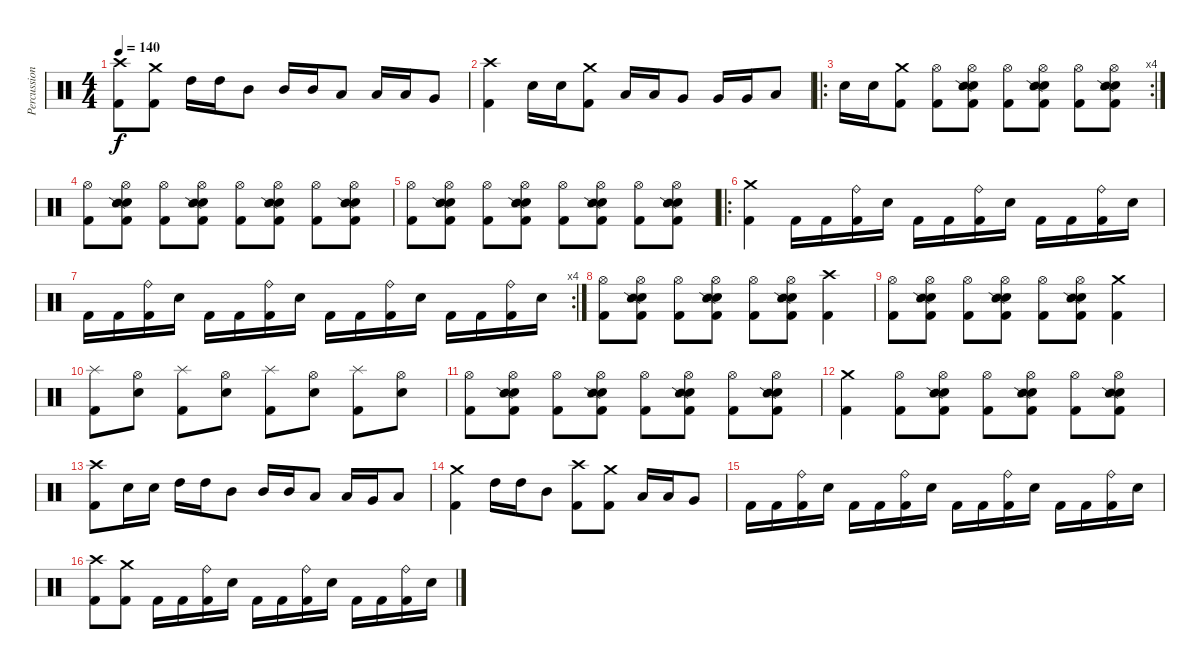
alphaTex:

\track ("Percussion" "Percussion") {instrument percussion}
\staff {score}
\articulation defaults
\ts (4 4)
\tempo 140
\clef neutral
\ks c
("Crash high (hit)" "Kick (hit) 2").8{dy f} ("Crash medium (hit)" "Kick (hit) 2").8 "High Tom (hit)".16 "High Tom (hit)".16 "Mid Tom (hit)".8 "Mid Tom (hit)".16 "Mid Tom (hit)".16 "Low Tom (hit)".8 "Low Tom (hit)".16 "Low Tom (hit)".16 "Very Low Tom (hit)".8 |
("Crash high (hit)" "Kick (hit) 2").4 "Electric Snare (hit)".16 "Electric Snare (hit)".16 ("Crash medium (hit)" "Kick (hit) 2").8 "Low Tom (hit)".16 "Low Tom (hit)".16 "Very Low Tom (hit)".8 "Very Low Tom (hit)".16 "Very Low Tom (hit)".16 "Low Floor Tom (hit)".8 |
\ro
\rc 4 "Electric Snare (hit)".16 "Electric Snare (hit)".16
("Crash medium (hit)" "Kick (hit) 2").8 ("Hi-Hat (open)" "Kick (hit) 2").8 ("Hi-Hat (open)" "Electric Snare (hit)" "Snare (side stick) 2" "Kick (hit) 2").8 ("Hi-Hat (open)" "Kick (hit) 2").8 ("Hi-Hat (open)" "Electric Snare (hit)" "Snare (side stick) 2" "Kick (hit) 2").8 ("Hi-Hat (open)" "Kick (hit) 2").8 ("Hi-Hat (open)" "Electric Snare (hit)" "Snare (side stick) 2" "Kick (hit) 2").8 |
("Hi-Hat (open)" "Kick (hit) 2").8 ("Hi-Hat (open)" "Electric Snare (hit)" "Snare (side stick) 2" "Kick (hit) 2").8 ("Hi-Hat (open)" "Kick (hit) 2").8 ("Hi-Hat (open)" "Electric Snare (hit)" "Snare (side stick) 2" "Kick (hit) 2").8 ("Hi-Hat (open)" "Kick (hit) 2").8 ("Hi-Hat (open)" "Electric Snare (hit)" "Snare (side stick) 2" "Kick (hit) 2").8 ("Hi-Hat (open)" "Kick (hit) 2").8 ("Hi-Hat (open)" "Electric Snare (hit)" "Snare (side stick) 2" "Kick (hit) 2").8 |
("Hi-Hat (open)" "Kick (hit) 2").8 ("Hi-Hat (open)" "Electric Snare (hit)" "Snare (side stick) 2" "Kick (hit) 2").8 ("Hi-Hat (open)" "Kick (hit) 2").8 ("Hi-Hat (open)" "Electric Snare (hit)" "Snare (side stick) 2" "Kick (hit) 2").8 ("Hi-Hat (open)" "Kick (hit) 2").8 ("Hi-Hat (open)" "Electric Snare (hit)" "Snare (side stick) 2" "Kick (hit) 2").8 ("Hi-Hat (open)" "Kick (hit) 2").8 ("Hi-Hat (open)" "Electric Snare (hit)" "Snare (side stick) 2" "Kick (hit) 2").8 |
\ro
("Crash medium (hit)" "Kick (hit) 2").4 "Kick (hit) 2".16 "Kick (hit) 2".16 ("Ride (bell)" "Kick (hit) 2").16 "Electric Snare (hit)".16 "Kick (hit) 2".16 "Kick (hit) 2".16 ("Ride (bell)" "Kick (hit) 2").16 "Electric Snare (hit)".16 "Kick (hit) 2".16 "Kick (hit) 2".16 ("Ride (bell)" "Kick (hit) 2").16 "Electric Snare (hit)".16 |
\rc 4 "Kick (hit) 2".16 "Kick (hit) 2".16
("Ride (bell)" "Kick (hit) 2").16 "Electric Snare (hit)".16 "Kick (hit) 2".16 "Kick (hit) 2".16 ("Ride (bell)" "Kick (hit) 2").16 "Electric Snare (hit)".16 "Kick (hit) 2".16 "Kick (hit) 2".16 ("Ride (bell)" "Kick (hit) 2").16 "Electric Snare (hit)".16 "Kick (hit) 2".16 "Kick (hit) 2".16 ("Ride (bell)" "Kick (hit) 2").16 "Electric Snare (hit)".16 |
("Hi-Hat (open)" "Kick (hit) 2").8 ("Hi-Hat (open)" "Electric Snare (hit)" "Snare (side stick) 2" "Kick (hit) 2").8 ("Hi-Hat (open)" "Kick (hit) 2").8 ("Hi-Hat (open)" "Electric Snare (hit)" "Snare (side stick) 2" "Kick (hit) 2").8 ("Hi-Hat (open)" "Kick (hit) 2").8 ("Hi-Hat (open)" "Electric Snare (hit)" "Snare (side stick) 2" "Kick (hit) 2").8 ("Crash high (hit)" "Kick (hit) 2").4 |
("Hi-Hat (open)" "Kick (hit) 2").8 ("Hi-Hat (open)" "Electric Snare (hit)" "Snare (side stick) 2" "Kick (hit) 2").8 ("Hi-Hat (open)" "Kick (hit) 2").8 ("Hi-Hat (open)" "Electric Snare (hit)" "Snare (side stick) 2" "Kick (hit) 2").8 ("Hi-Hat (open)" "Kick (hit) 2").8 ("Hi-Hat (open)" "Electric Snare (hit)" "Snare (side stick) 2" "Kick (hit) 2").8 ("Crash medium (hit)" "Kick (hit) 2").4 |
("Splash (hit)" "Kick (hit) 2").8 ("Hi-Hat (open)" "Electric Snare (hit)").8 ("Splash (hit)" "Kick (hit) 2").8 ("Hi-Hat (open)" "Electric Snare (hit)").8 ("Splash (hit)" "Kick (hit) 2").8 ("Hi-Hat (open)" "Electric Snare (hit)").8 ("Splash (hit)" "Kick (hit) 2").8 ("Hi-Hat (open)" "Electric Snare (hit)").8 |
("Hi-Hat (open)" "Kick (hit) 2").8 ("Hi-Hat (open)" "Electric Snare (hit)" "Snare (side stick) 2" "Kick (hit) 2").8 ("Hi-Hat (open)" "Kick (hit) 2").8 ("Hi-Hat (open)" "Electric Snare (hit)" "Snare (side stick) 2" "Kick (hit) 2").8 ("Hi-Hat (open)" "Kick (hit) 2").8 ("Hi-Hat (open)" "Electric Snare (hit)" "Snare (side stick) 2" "Kick (hit) 2").8 ("Hi-Hat (open)" "Kick (hit) 2").8 ("Hi-Hat (open)" "Electric Snare (hit)" "Snare (side stick) 2" "Kick (hit) 2").8 |
("Crash medium (hit)" "Kick (hit) 2").4 ("Hi-Hat (open)" "Kick (hit) 2").8 ("Hi-Hat (open)" "Electric Snare (hit)" "Snare (side stick) 2" "Kick (hit) 2").8 ("Hi-Hat (open)" "Kick (hit) 2").8 ("Hi-Hat (open)" "Electric Snare (hit)" "Snare (side stick) 2" "Kick (hit) 2").8 ("Hi-Hat (open)" "Kick (hit) 2").8 ("Hi-Hat (open)" "Electric Snare (hit)" "Snare (side stick) 2" "Kick (hit) 2").8 |
("Crash high (hit)" "Kick (hit) 2").8 "Electric Snare (hit)".16 "Electric Snare (hit)".16 "High Tom (hit)".16 "High Tom (hit)".16 "Mid Tom (hit)".8 "Mid Tom (hit)".16 "Mid Tom (hit)".16 "Low Tom (hit)".8 "Low Tom (hit)".16 "Very Low Tom (hit)".16 "Low Floor Tom (hit)".8 |
("Crash medium (hit)" "Kick (hit) 2").4 "High Tom (hit)".16 "High Tom (hit)".16 "Mid Tom (hit)".8 ("Crash high (hit)" "Kick (hit) 2").8 ("Crash medium (hit)" "Kick (hit) 2").8 "Low Tom (hit)".16 "Low Tom (hit)".16 "Very Low Tom (hit)".8 |
"Kick (hit) 2".16 "Kick (hit) 2".16 ("Ride (bell)" "Kick (hit) 2").16 "Electric Snare (hit)".16 "Kick (hit) 2".16 "Kick (hit) 2".16 ("Ride (bell)" "Kick (hit) 2").16 "Electric Snare (hit)".16 "Kick (hit) 2".16 "Kick (hit) 2".16 ("Ride (bell)" "Kick (hit) 2").16 "Electric Snare (hit)".16 "Kick (hit) 2".16 "Kick (hit) 2".16 ("Ride (bell)" "Kick (hit) 2").16 "Electric Snare (hit)".16 |
("Crash high (hit)" "Kick (hit) 2").8 ("Crash medium (hit)" "Kick (hit) 2").8 "Kick (hit) 2".16 "Kick (hit) 2".16 ("Ride (bell)" "Kick (hit) 2").16 "Electric Snare (hit)".16 "Kick (hit) 2".16 "Kick (hit) 2".16 ("Ride (bell)" "Kick (hit) 2").16 "Electric Snare (hit)".16 "Kick (hit) 2".16 "Kick (hit) 2".16 ("Ride (bell)" "Kick (hit) 2").16 "Electric Snare (hit)".16
